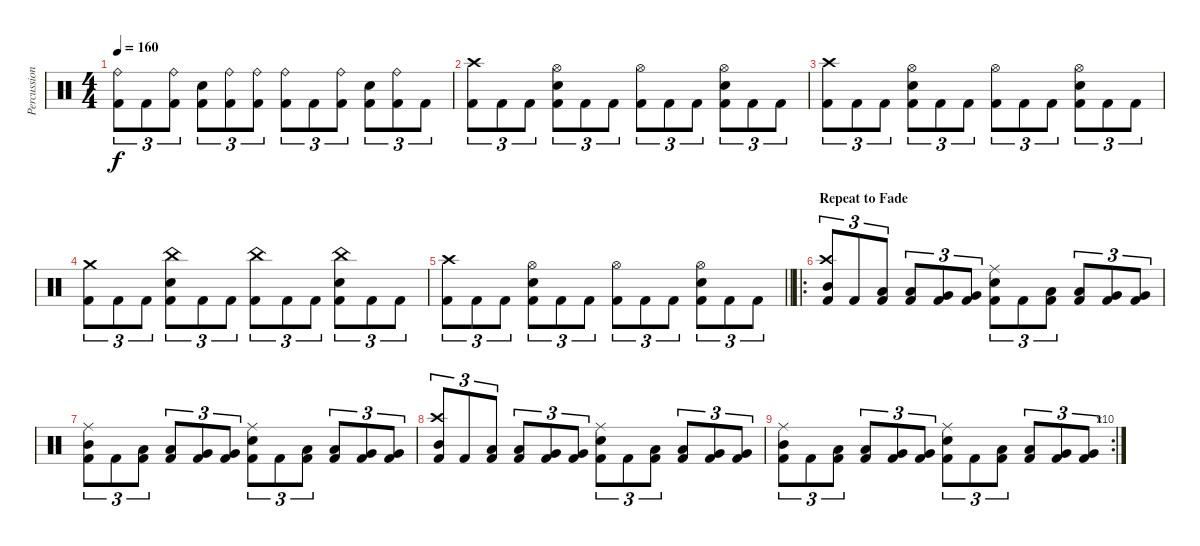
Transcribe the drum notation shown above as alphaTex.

\track ("Percussion" "Percussion") {instrument percussion}
\staff {score}
\articulation defaults
\ts (4 4)
\tempo 160
\clef neutral
\ks c
("Ride (bell)" "Kick (hit) 2").8{tu (3 2) dy f} "Kick (hit) 2".8{tu (3 2)} ("Ride (bell)" "Kick (hit) 2").8{tu (3 2)} ("Snare (hit) 2" "Kick (hit) 2").8{tu (3 2)} ("Ride (bell)" "Kick (hit) 2").8{tu (3 2)} ("Ride (bell)" "Kick (hit) 2").8{tu (3 2)} ("Ride (bell)" "Kick (hit) 2").8{tu (3 2)} "Kick (hit) 2".8{tu (3 2)} ("Ride (bell)" "Kick (hit) 2").8{tu (3 2)} ("Snare (hit) 2" "Kick (hit) 2").8{tu (3 2)} ("Ride (bell)" "Kick (hit) 2").8{tu (3 2)} "Kick (hit) 2".8{tu (3 2)} |
("Crash high (hit)" "Kick (hit) 2").8{tu (3 2)} "Kick (hit) 2".8{tu (3 2)} "Kick (hit) 2".8{tu (3 2)} ("Hi-Hat (open)" "Snare (hit) 2" "Kick (hit) 2").8{tu (3 2)} "Kick (hit) 2".8{tu (3 2)} "Kick (hit) 2".8{tu (3 2)} ("Hi-Hat (open)" "Kick (hit) 2").8{tu (3 2)} "Kick (hit) 2".8{tu (3 2)} "Kick (hit) 2".8{tu (3 2)} ("Hi-Hat (open)" "Snare (hit) 2" "Kick (hit) 2").8{tu (3 2)} "Kick (hit) 2".8{tu (3 2)} "Kick (hit) 2".8{tu (3 2)} |
("Crash high (hit)" "Kick (hit) 2").8{tu (3 2)} "Kick (hit) 2".8{tu (3 2)} "Kick (hit) 2".8{tu (3 2)} ("Hi-Hat (open)" "Snare (hit) 2" "Kick (hit) 2").8{tu (3 2)} "Kick (hit) 2".8{tu (3 2)} "Kick (hit) 2".8{tu (3 2)} ("Hi-Hat (open)" "Kick (hit) 2").8{tu (3 2)} "Kick (hit) 2".8{tu (3 2)} "Kick (hit) 2".8{tu (3 2)} ("Hi-Hat (open)" "Snare (hit) 2" "Kick (hit) 2").8{tu (3 2)} "Kick (hit) 2".8{tu (3 2)} "Kick (hit) 2".8{tu (3 2)} |
("Crash medium (hit)" "Kick (hit) 2").8{tu (3 2)} "Kick (hit) 2".8{tu (3 2)} "Kick (hit) 2".8{tu (3 2)} ("China (hit)" "Snare (hit) 2" "Kick (hit) 2").8{tu (3 2)} "Kick (hit) 2".8{tu (3 2)} "Kick (hit) 2".8{tu (3 2)} ("China (hit)" "Kick (hit) 2").8{tu (3 2)} "Kick (hit) 2".8{tu (3 2)} "Kick (hit) 2".8{tu (3 2)} ("China (hit)" "Snare (hit) 2" "Kick (hit) 2").8{tu (3 2)} "Kick (hit) 2".8{tu (3 2)} "Kick (hit) 2".8{tu (3 2)} |
\barLineRight lightlight
("Crash high (hit)" "Kick (hit) 2").8{tu (3 2)} "Kick (hit) 2".8{tu (3 2)} "Kick (hit) 2".8{tu (3 2)} ("Hi-Hat (open)" "Snare (hit) 2" "Kick (hit) 2").8{tu (3 2)} "Kick (hit) 2".8{tu (3 2)} "Kick (hit) 2".8{tu (3 2)} ("Hi-Hat (open)" "Kick (hit) 2").8{tu (3 2)} "Kick (hit) 2".8{tu (3 2)} "Kick (hit) 2".8{tu (3 2)} ("Hi-Hat (open)" "Snare (hit) 2" "Kick (hit) 2").8{tu (3 2)} "Kick (hit) 2".8{tu (3 2)} "Kick (hit) 2".8{tu (3 2)} |
\ro
\section ("" "Repeat to Fade")
("Crash high (hit)" "Mid Tom (hit)" "Kick (hit) 2").8{tu (3 2)} "Kick (hit) 2".8{tu (3 2)} ("Low Tom (hit)" "Kick (hit) 2").8{tu (3 2)} ("Low Tom (hit)" "Kick (hit) 2").8{tu (3 2)} ("Very Low Tom (hit)" "Kick (hit) 2").8{tu (3 2)} ("Very Low Tom (hit)" "Kick (hit) 2").8{tu (3 2)} ("Ride (middle)" "Snare (hit) 2" "Kick (hit) 2").8{tu (3 2)} "Kick (hit) 2".8{tu (3 2)} ("Low Tom (hit)" "Kick (hit) 2").8{tu (3 2)} ("Low Tom (hit)" "Kick (hit) 2").8{tu (3 2)} ("Very Low Tom (hit)" "Kick (hit) 2").8{tu (3 2)} ("Very Low Tom (hit)" "Kick (hit) 2").8{tu (3 2)} |
("Ride (middle)" "Mid Tom (hit)" "Kick (hit) 2").8{tu (3 2)} "Kick (hit) 2".8{tu (3 2)} ("Low Tom (hit)" "Kick (hit) 2").8{tu (3 2)} ("Low Tom (hit)" "Kick (hit) 2").8{tu (3 2)} ("Very Low Tom (hit)" "Kick (hit) 2").8{tu (3 2)} ("Very Low Tom (hit)" "Kick (hit) 2").8{tu (3 2)} ("Ride (middle)" "Snare (hit) 2" "Kick (hit) 2").8{tu (3 2)} "Kick (hit) 2".8{tu (3 2)} ("Low Tom (hit)" "Kick (hit) 2").8{tu (3 2)} ("Low Tom (hit)" "Kick (hit) 2").8{tu (3 2)} ("Very Low Tom (hit)" "Kick (hit) 2").8{tu (3 2)} ("Very Low Tom (hit)" "Kick (hit) 2").8{tu (3 2)} |
("Crash high (hit)" "Mid Tom (hit)" "Kick (hit) 2").8{tu (3 2)} "Kick (hit) 2".8{tu (3 2)} ("Low Tom (hit)" "Kick (hit) 2").8{tu (3 2)} ("Low Tom (hit)" "Kick (hit) 2").8{tu (3 2)} ("Very Low Tom (hit)" "Kick (hit) 2").8{tu (3 2)} ("Very Low Tom (hit)" "Kick (hit) 2").8{tu (3 2)} ("Ride (middle)" "Snare (hit) 2" "Kick (hit) 2").8{tu (3 2)} "Kick (hit) 2".8{tu (3 2)} ("Low Tom (hit)" "Kick (hit) 2").8{tu (3 2)} ("Low Tom (hit)" "Kick (hit) 2").8{tu (3 2)} ("Very Low Tom (hit)" "Kick (hit) 2").8{tu (3 2)} ("Very Low Tom (hit)" "Kick (hit) 2").8{tu (3 2)} |
\rc 10
("Ride (middle)" "Mid Tom (hit)" "Kick (hit) 2").8{tu (3 2)} "Kick (hit) 2".8{tu (3 2)} ("Low Tom (hit)" "Kick (hit) 2").8{tu (3 2)} ("Low Tom (hit)" "Kick (hit) 2").8{tu (3 2)} ("Very Low Tom (hit)" "Kick (hit) 2").8{tu (3 2)} ("Very Low Tom (hit)" "Kick (hit) 2").8{tu (3 2)} ("Ride (middle)" "Snare (hit) 2" "Kick (hit) 2").8{tu (3 2)} "Kick (hit) 2".8{tu (3 2)} ("Low Tom (hit)" "Kick (hit) 2").8{tu (3 2)} ("Low Tom (hit)" "Kick (hit) 2").8{tu (3 2)} ("Very Low Tom (hit)" "Kick (hit) 2").8{tu (3 2)} ("Very Low Tom (hit)" "Kick (hit) 2").8{tu (3 2)}
